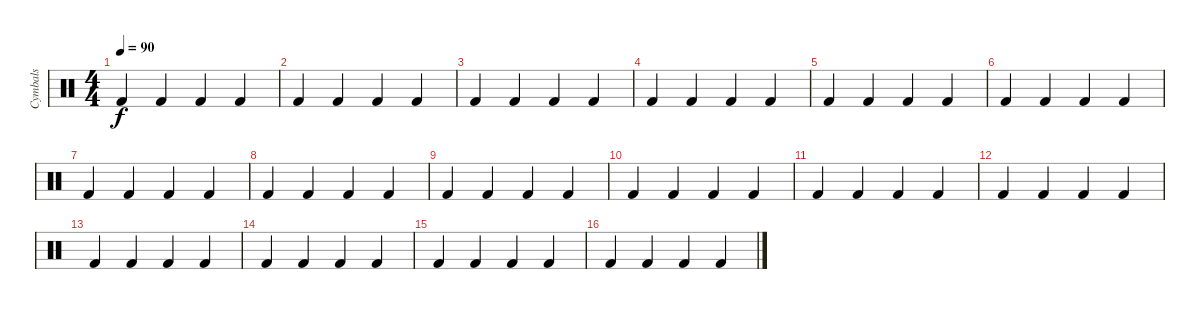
\track ("Cymbals" "Cymbals") {instrument percussion}
\staff {score}
\articulation defaults
\ts (4 4)
\tempo 90
\clef neutral
\ks c "Kick (hit) 2".4{dy f volume 2} "Kick (hit) 2".4 "Kick (hit) 2".4 "Kick (hit) 2".4
|
"Kick (hit) 2".4 "Kick (hit) 2".4 "Kick (hit) 2".4 "Kick (hit) 2".4 |
"Kick (hit) 2".4 "Kick (hit) 2".4 "Kick (hit) 2".4 "Kick (hit) 2".4 |
"Kick (hit) 2".4 "Kick (hit) 2".4 "Kick (hit) 2".4 "Kick (hit) 2".4 |
"Kick (hit) 2".4{volume 4} "Kick (hit) 2".4 "Kick (hit) 2".4 "Kick (hit) 2".4 |
"Kick (hit) 2".4 "Kick (hit) 2".4 "Kick (hit) 2".4 "Kick (hit) 2".4 |
"Kick (hit) 2".4 "Kick (hit) 2".4 "Kick (hit) 2".4 "Kick (hit) 2".4 |
"Kick (hit) 2".4 "Kick (hit) 2".4 "Kick (hit) 2".4 "Kick (hit) 2".4 |
"Kick (hit) 2".4 "Kick (hit) 2".4 "Kick (hit) 2".4 "Kick (hit) 2".4 |
"Kick (hit) 2".4 "Kick (hit) 2".4 "Kick (hit) 2".4 "Kick (hit) 2".4 |
"Kick (hit) 2".4 "Kick (hit) 2".4 "Kick (hit) 2".4 "Kick (hit) 2".4 |
"Kick (hit) 2".4 "Kick (hit) 2".4 "Kick (hit) 2".4 "Kick (hit) 2".4 |
"Kick (hit) 2".4 "Kick (hit) 2".4 "Kick (hit) 2".4 "Kick (hit) 2".4 |
"Kick (hit) 2".4 "Kick (hit) 2".4 "Kick (hit) 2".4 "Kick (hit) 2".4 |
"Kick (hit) 2".4 "Kick (hit) 2".4 "Kick (hit) 2".4 "Kick (hit) 2".4 |
"Kick (hit) 2".4 "Kick (hit) 2".4 "Kick (hit) 2".4 "Kick (hit) 2".4
